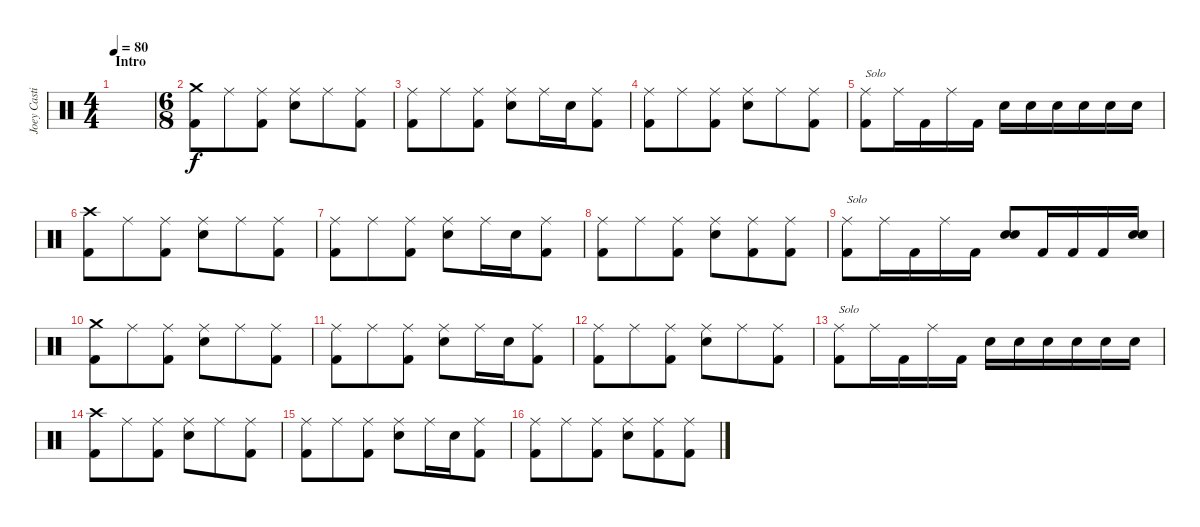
\track ("Joey Castillo - drums" "Joey Casti") {instrument percussion}
\staff {score}
\articulation defaults
\ts (4 4)
\section ("" "Intro")
\tempo 80
\clef neutral
\ks c
|
\ts (6 8)
("Crash medium (hit)" "Kick (hit) 2").8 "Ride (middle)".8 ("Ride (middle)" "Kick (hit) 2").8 ("Ride (middle)" "Electric Snare (hit)").8 "Ride (middle)".8 ("Ride (middle)" "Kick (hit) 2").8 |
("Ride (middle)" "Kick (hit) 2").8 "Ride (middle)".8 ("Ride (middle)" "Kick (hit) 2").8 ("Ride (middle)" "Electric Snare (hit)").8 "Ride (middle)".16 "Electric Snare (hit)".16 ("Ride (middle)" "Kick (hit) 2").8 |
("Ride (middle)" "Kick (hit) 2").8 "Ride (middle)".8 ("Ride (middle)" "Kick (hit) 2").8 ("Ride (middle)" "Electric Snare (hit)").8 "Ride (middle)".8 ("Ride (middle)" "Kick (hit) 2").8 |
("Ride (middle)" "Kick (hit) 2").8{txt "Solo"} "Ride (middle)".16 "Kick (hit) 2".16 "Ride (middle)".16 "Kick (hit) 2".16 "Electric Snare (hit)".16 "Electric Snare (hit)".16 "Electric Snare (hit)".16 "Electric Snare (hit)".16 "Electric Snare (hit)".16 "Electric Snare (hit)".16 |
("Crash high (hit)" "Kick (hit) 2").8 "Ride (middle)".8 ("Ride (middle)" "Kick (hit) 2").8 ("Ride (middle)" "Electric Snare (hit)").8 "Ride (middle)".8 ("Ride (middle)" "Kick (hit) 2").8 |
("Ride (middle)" "Kick (hit) 2").8 "Ride (middle)".8 ("Ride (middle)" "Kick (hit) 2").8 ("Ride (middle)" "Electric Snare (hit)").8 "Ride (middle)".16 "Electric Snare (hit)".16 ("Ride (middle)" "Kick (hit) 2").8 |
("Ride (middle)" "Kick (hit) 2").8 "Ride (middle)".8 ("Ride (middle)" "Kick (hit) 2").8 ("Ride (middle)" "Electric Snare (hit)").8 ("Ride (middle)" "Kick (hit) 2").8 ("Ride (middle)" "Kick (hit) 2").8 |
("Ride (middle)" "Kick (hit) 2").8{txt "Solo"} "Ride (middle)".16 "Kick (hit) 2".16 "Ride (middle)".16 "Kick (hit) 2".16 ("Electric Snare (hit)" "Snare (hit) 2").8 "Kick (hit) 2".16 "Kick (hit) 2".16 "Kick (hit) 2".16 ("Electric Snare (hit)" "Snare (hit) 2").16 |
("Crash medium (hit)" "Kick (hit) 2").8 "Ride (middle)".8 ("Ride (middle)" "Kick (hit) 2").8 ("Ride (middle)" "Electric Snare (hit)").8 "Ride (middle)".8 ("Ride (middle)" "Kick (hit) 2").8 |
("Ride (middle)" "Kick (hit) 2").8 "Ride (middle)".8 ("Ride (middle)" "Kick (hit) 2").8 ("Ride (middle)" "Electric Snare (hit)").8 "Ride (middle)".16 "Electric Snare (hit)".16 ("Ride (middle)" "Kick (hit) 2").8 |
("Ride (middle)" "Kick (hit) 2").8 "Ride (middle)".8 ("Ride (middle)" "Kick (hit) 2").8 ("Ride (middle)" "Electric Snare (hit)").8 "Ride (middle)".8 ("Ride (middle)" "Kick (hit) 2").8 |
("Ride (middle)" "Kick (hit) 2").8{txt "Solo"} "Ride (middle)".16 "Kick (hit) 2".16 "Ride (middle)".16 "Kick (hit) 2".16 "Electric Snare (hit)".16 "Electric Snare (hit)".16 "Electric Snare (hit)".16 "Electric Snare (hit)".16 "Electric Snare (hit)".16 "Electric Snare (hit)".16 |
("Crash high (hit)" "Kick (hit) 2").8 "Ride (middle)".8 ("Ride (middle)" "Kick (hit) 2").8 ("Ride (middle)" "Electric Snare (hit)").8 "Ride (middle)".8 ("Ride (middle)" "Kick (hit) 2").8 |
("Ride (middle)" "Kick (hit) 2").8 "Ride (middle)".8 ("Ride (middle)" "Kick (hit) 2").8 ("Ride (middle)" "Electric Snare (hit)").8 "Ride (middle)".16 "Electric Snare (hit)".16 ("Ride (middle)" "Kick (hit) 2").8 |
("Ride (middle)" "Kick (hit) 2").8 "Ride (middle)".8 ("Ride (middle)" "Kick (hit) 2").8 ("Ride (middle)" "Electric Snare (hit)").8 ("Ride (middle)" "Kick (hit) 2").8 ("Ride (middle)" "Kick (hit) 2").8
